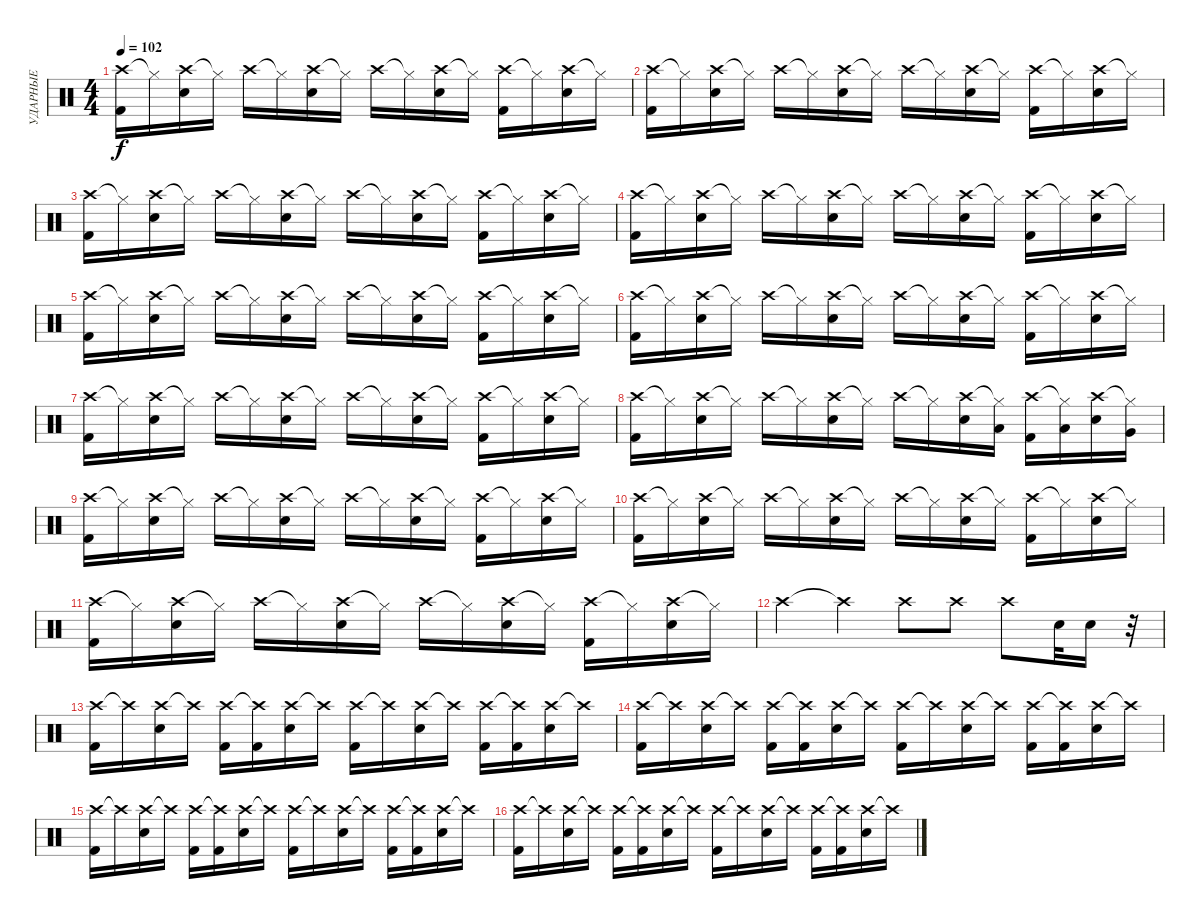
\track ("УДАРНЫЕ" "УДАРНЫЕ") {instrument percussion}
\staff {score}
\articulation defaults
\ts (4 4)
\tempo 102
\clef neutral
\ks c
("Crash high (hit)" "Kick (hit) 2").16{dy f} "Hi-Hat (closed)"{t}.16 ("Crash high (hit)" "Electric Snare (hit)").16 "Hi-Hat (closed)"{t}.16 "Crash high (hit)".16 "Hi-Hat (closed)"{t}.16 ("Crash high (hit)" "Electric Snare (hit)").16 "Hi-Hat (closed)"{t}.16 "Crash high (hit)".16 "Hi-Hat (closed)"{t}.16 ("Crash high (hit)" "Electric Snare (hit)").16 "Hi-Hat (closed)"{t}.16 ("Crash high (hit)" "Kick (hit) 2").16 "Hi-Hat (closed)"{t}.16 ("Crash high (hit)" "Electric Snare (hit)").16 "Hi-Hat (closed)"{t}.16 |
("Crash high (hit)" "Kick (hit) 2").16 "Hi-Hat (closed)"{t}.16 ("Crash high (hit)" "Electric Snare (hit)").16 "Hi-Hat (closed)"{t}.16 "Crash high (hit)".16 "Hi-Hat (closed)"{t}.16 ("Crash high (hit)" "Electric Snare (hit)").16 "Hi-Hat (closed)"{t}.16 "Crash high (hit)".16 "Hi-Hat (closed)"{t}.16 ("Crash high (hit)" "Electric Snare (hit)").16 "Hi-Hat (closed)"{t}.16 ("Crash high (hit)" "Kick (hit) 2").16 "Hi-Hat (closed)"{t}.16 ("Crash high (hit)" "Electric Snare (hit)").16 "Hi-Hat (closed)"{t}.16 |
("Crash high (hit)" "Kick (hit) 2").16 "Hi-Hat (closed)"{t}.16 ("Crash high (hit)" "Electric Snare (hit)").16 "Hi-Hat (closed)"{t}.16 "Crash high (hit)".16 "Hi-Hat (closed)"{t}.16 ("Crash high (hit)" "Electric Snare (hit)").16 "Hi-Hat (closed)"{t}.16 "Crash high (hit)".16 "Hi-Hat (closed)"{t}.16 ("Crash high (hit)" "Electric Snare (hit)").16 "Hi-Hat (closed)"{t}.16 ("Crash high (hit)" "Kick (hit) 2").16 "Hi-Hat (closed)"{t}.16 ("Crash high (hit)" "Electric Snare (hit)").16 "Hi-Hat (closed)"{t}.16 |
("Crash high (hit)" "Kick (hit) 2").16 "Hi-Hat (closed)"{t}.16 ("Crash high (hit)" "Electric Snare (hit)").16 "Hi-Hat (closed)"{t}.16 "Crash high (hit)".16 "Hi-Hat (closed)"{t}.16 ("Crash high (hit)" "Electric Snare (hit)").16 "Hi-Hat (closed)"{t}.16 "Crash high (hit)".16 "Hi-Hat (closed)"{t}.16 ("Crash high (hit)" "Electric Snare (hit)").16 "Hi-Hat (closed)"{t}.16 ("Crash high (hit)" "Kick (hit) 2").16 "Hi-Hat (closed)"{t}.16 ("Crash high (hit)" "Electric Snare (hit)").16 "Hi-Hat (closed)"{t}.16 |
("Crash high (hit)" "Kick (hit) 2").16 "Hi-Hat (closed)"{t}.16 ("Crash high (hit)" "Electric Snare (hit)").16 "Hi-Hat (closed)"{t}.16 "Crash high (hit)".16 "Hi-Hat (closed)"{t}.16 ("Crash high (hit)" "Electric Snare (hit)").16 "Hi-Hat (closed)"{t}.16 "Crash high (hit)".16 "Hi-Hat (closed)"{t}.16 ("Crash high (hit)" "Electric Snare (hit)").16 "Hi-Hat (closed)"{t}.16 ("Crash high (hit)" "Kick (hit) 2").16 "Hi-Hat (closed)"{t}.16 ("Crash high (hit)" "Electric Snare (hit)").16 "Hi-Hat (closed)"{t}.16 |
("Crash high (hit)" "Kick (hit) 2").16 "Hi-Hat (closed)"{t}.16 ("Crash high (hit)" "Electric Snare (hit)").16 "Hi-Hat (closed)"{t}.16 "Crash high (hit)".16 "Hi-Hat (closed)"{t}.16 ("Crash high (hit)" "Electric Snare (hit)").16 "Hi-Hat (closed)"{t}.16 "Crash high (hit)".16 "Hi-Hat (closed)"{t}.16 ("Crash high (hit)" "Electric Snare (hit)").16 "Hi-Hat (closed)"{t}.16 ("Crash high (hit)" "Kick (hit) 2").16 "Hi-Hat (closed)"{t}.16 ("Crash high (hit)" "Electric Snare (hit)").16 "Hi-Hat (closed)"{t}.16 |
("Crash high (hit)" "Kick (hit) 2").16 "Hi-Hat (closed)"{t}.16 ("Crash high (hit)" "Electric Snare (hit)").16 "Hi-Hat (closed)"{t}.16 "Crash high (hit)".16 "Hi-Hat (closed)"{t}.16 ("Crash high (hit)" "Electric Snare (hit)").16 "Hi-Hat (closed)"{t}.16 "Crash high (hit)".16 "Hi-Hat (closed)"{t}.16 ("Crash high (hit)" "Electric Snare (hit)").16 "Hi-Hat (closed)"{t}.16 ("Crash high (hit)" "Kick (hit) 2").16 "Hi-Hat (closed)"{t}.16 ("Crash high (hit)" "Electric Snare (hit)").16 "Hi-Hat (closed)"{t}.16 |
("Crash high (hit)" "Kick (hit) 2").16 "Hi-Hat (closed)"{t}.16 ("Crash high (hit)" "Electric Snare (hit)").16 "Hi-Hat (closed)"{t}.16 "Crash high (hit)".16 "Hi-Hat (closed)"{t}.16 ("Crash high (hit)" "Electric Snare (hit)").16 "Hi-Hat (closed)"{t}.16 "Crash high (hit)".16 "Hi-Hat (closed)"{t}.16 ("Crash high (hit)" "Electric Snare (hit)").16 ("Hi-Hat (closed)"{t} "Low Floor Tom (hit)").16 ("Crash high (hit)" "Kick (hit) 2").16 ("Hi-Hat (closed)"{t} "Low Tom (hit)").16 ("Crash high (hit)" "Electric Snare (hit)").16 ("Hi-Hat (closed)"{t} "Very Low Tom (hit)").16 |
("Crash high (hit)" "Kick (hit) 2").16 "Hi-Hat (closed)"{t}.16 ("Crash high (hit)" "Electric Snare (hit)").16 "Hi-Hat (closed)"{t}.16 "Crash high (hit)".16 "Hi-Hat (closed)"{t}.16 ("Crash high (hit)" "Electric Snare (hit)").16 "Hi-Hat (closed)"{t}.16 "Crash high (hit)".16 "Hi-Hat (closed)"{t}.16 ("Crash high (hit)" "Electric Snare (hit)").16 "Hi-Hat (closed)"{t}.16 ("Crash high (hit)" "Kick (hit) 2").16 "Hi-Hat (closed)"{t}.16 ("Crash high (hit)" "Electric Snare (hit)").16 "Hi-Hat (closed)"{t}.16 |
("Crash high (hit)" "Kick (hit) 2").16 "Hi-Hat (closed)"{t}.16 ("Crash high (hit)" "Electric Snare (hit)").16 "Hi-Hat (closed)"{t}.16 "Crash high (hit)".16 "Hi-Hat (closed)"{t}.16 ("Crash high (hit)" "Electric Snare (hit)").16 "Hi-Hat (closed)"{t}.16 "Crash high (hit)".16 "Hi-Hat (closed)"{t}.16 ("Crash high (hit)" "Electric Snare (hit)").16 "Hi-Hat (closed)"{t}.16 ("Crash high (hit)" "Kick (hit) 2").16 "Hi-Hat (closed)"{t}.16 ("Crash high (hit)" "Electric Snare (hit)").16 "Hi-Hat (closed)"{t}.16 |
("Crash high (hit)" "Kick (hit) 2").16 "Hi-Hat (closed)"{t}.16 ("Crash high (hit)" "Electric Snare (hit)").16 "Hi-Hat (closed)"{t}.16 "Crash high (hit)".16 "Hi-Hat (closed)"{t}.16 ("Crash high (hit)" "Electric Snare (hit)").16 "Hi-Hat (closed)"{t}.16 "Crash high (hit)".16 "Hi-Hat (closed)"{t}.16 ("Crash high (hit)" "Electric Snare (hit)").16 "Hi-Hat (closed)"{t}.16 ("Crash high (hit)" "Kick (hit) 2").16 "Hi-Hat (closed)"{t}.16 ("Crash high (hit)" "Electric Snare (hit)").16 "Hi-Hat (closed)"{t}.16 |
"Crash high (hit)".4 "Crash high (hit)"{t}.4 "Crash high (hit)".8 "Crash high (hit)".8 "Crash high (hit)".8 "Electric Snare (hit)".32 "Electric Snare (hit)".16 r.32 |
("Crash high (hit)" "Kick (hit) 2").16 "Crash high (hit)"{t}.16 ("Crash high (hit)" "Electric Snare (hit)").16 "Crash high (hit)"{t}.16 ("Crash high (hit)" "Kick (hit) 2").16 ("Crash high (hit)"{t} "Kick (hit) 2").16 ("Crash high (hit)" "Electric Snare (hit)").16 "Crash high (hit)"{t}.16 ("Crash high (hit)" "Kick (hit) 2").16 "Crash high (hit)"{t}.16 ("Crash high (hit)" "Electric Snare (hit)").16 "Crash high (hit)"{t}.16 ("Crash high (hit)" "Kick (hit) 2").16 ("Crash high (hit)"{t} "Kick (hit) 2").16 ("Crash high (hit)" "Electric Snare (hit)").16 "Crash high (hit)"{t}.16 |
("Crash high (hit)" "Kick (hit) 2").16 "Crash high (hit)"{t}.16 ("Crash high (hit)" "Electric Snare (hit)").16 "Crash high (hit)"{t}.16 ("Crash high (hit)" "Kick (hit) 2").16 ("Crash high (hit)"{t} "Kick (hit) 2").16 ("Crash high (hit)" "Electric Snare (hit)").16 "Crash high (hit)"{t}.16 ("Crash high (hit)" "Kick (hit) 2").16 "Crash high (hit)"{t}.16 ("Crash high (hit)" "Electric Snare (hit)").16 "Crash high (hit)"{t}.16 ("Crash high (hit)" "Kick (hit) 2").16 ("Crash high (hit)"{t} "Kick (hit) 2").16 ("Crash high (hit)" "Electric Snare (hit)").16 "Crash high (hit)"{t}.16 |
("Crash high (hit)" "Kick (hit) 2").16 "Crash high (hit)"{t}.16 ("Crash high (hit)" "Electric Snare (hit)").16 "Crash high (hit)"{t}.16 ("Crash high (hit)" "Kick (hit) 2").16 ("Crash high (hit)"{t} "Kick (hit) 2").16 ("Crash high (hit)" "Electric Snare (hit)").16 "Crash high (hit)"{t}.16 ("Crash high (hit)" "Kick (hit) 2").16 "Crash high (hit)"{t}.16 ("Crash high (hit)" "Electric Snare (hit)").16 "Crash high (hit)"{t}.16 ("Crash high (hit)" "Kick (hit) 2").16 ("Crash high (hit)"{t} "Kick (hit) 2").16 ("Crash high (hit)" "Electric Snare (hit)").16 "Crash high (hit)"{t}.16 |
("Crash high (hit)" "Kick (hit) 2").16 "Crash high (hit)"{t}.16 ("Crash high (hit)" "Electric Snare (hit)").16 "Crash high (hit)"{t}.16 ("Crash high (hit)" "Kick (hit) 2").16 ("Crash high (hit)"{t} "Kick (hit) 2").16 ("Crash high (hit)" "Electric Snare (hit)").16 "Crash high (hit)"{t}.16 ("Crash high (hit)" "Kick (hit) 2").16 "Crash high (hit)"{t}.16 ("Crash high (hit)" "Electric Snare (hit)").16 "Crash high (hit)"{t}.16 ("Crash high (hit)" "Kick (hit) 2").16 ("Crash high (hit)"{t} "Kick (hit) 2").16 ("Crash high (hit)" "Electric Snare (hit)").16 "Crash high (hit)"{t}.16
